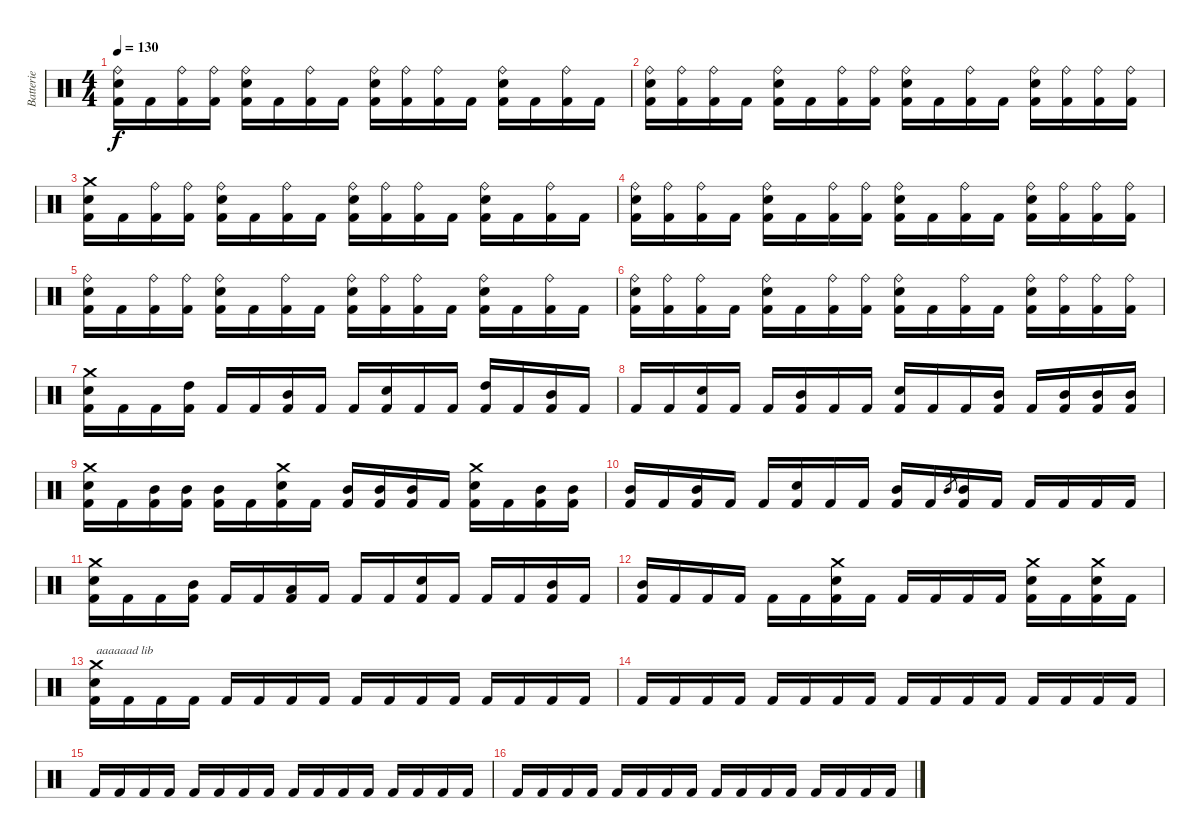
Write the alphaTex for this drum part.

\track ("Batterie" "Batterie") {instrument percussion}
\staff {score}
\articulation defaults
\ts (4 4)
\tempo 130
\clef neutral
\ks c
("Ride (bell)" "Snare (hit) 2" "Kick (hit) 2").16{dy f} "Kick (hit) 2".16 ("Ride (bell)" "Kick (hit) 2").16 ("Ride (bell)" "Kick (hit) 2").16 ("Ride (bell)" "Snare (hit) 2" "Kick (hit) 2").16 "Kick (hit) 2".16 ("Ride (bell)" "Kick (hit) 2").16 "Kick (hit) 2".16 ("Ride (bell)" "Snare (hit) 2" "Kick (hit) 2").16 ("Ride (bell)" "Kick (hit) 2").16 ("Ride (bell)" "Kick (hit) 2").16 "Kick (hit) 2".16 ("Ride (bell)" "Snare (hit) 2" "Kick (hit) 2").16 "Kick (hit) 2".16 ("Ride (bell)" "Kick (hit) 2").16 "Kick (hit) 2".16 |
("Ride (bell)" "Snare (hit) 2" "Kick (hit) 2").16 ("Ride (bell)" "Kick (hit) 2").16 ("Ride (bell)" "Kick (hit) 2").16 "Kick (hit) 2".16 ("Ride (bell)" "Snare (hit) 2" "Kick (hit) 2").16 "Kick (hit) 2".16 ("Ride (bell)" "Kick (hit) 2").16 ("Ride (bell)" "Kick (hit) 2").16 ("Ride (bell)" "Snare (hit) 2" "Kick (hit) 2").16 "Kick (hit) 2".16 ("Ride (bell)" "Kick (hit) 2").16 "Kick (hit) 2".16 ("Ride (bell)" "Snare (hit) 2" "Kick (hit) 2").16 ("Ride (bell)" "Kick (hit) 2").16 ("Ride (bell)" "Kick (hit) 2").16 ("Ride (bell)" "Kick (hit) 2").16 |
("Crash medium (hit)" "Snare (hit) 2" "Kick (hit) 2").16 "Kick (hit) 2".16 ("Ride (bell)" "Kick (hit) 2").16 ("Ride (bell)" "Kick (hit) 2").16 ("Ride (bell)" "Snare (hit) 2" "Kick (hit) 2").16 "Kick (hit) 2".16 ("Ride (bell)" "Kick (hit) 2").16 "Kick (hit) 2".16 ("Ride (bell)" "Snare (hit) 2" "Kick (hit) 2").16 ("Ride (bell)" "Kick (hit) 2").16 ("Ride (bell)" "Kick (hit) 2").16 "Kick (hit) 2".16 ("Ride (bell)" "Snare (hit) 2" "Kick (hit) 2").16 "Kick (hit) 2".16 ("Ride (bell)" "Kick (hit) 2").16 "Kick (hit) 2".16 |
("Ride (bell)" "Snare (hit) 2" "Kick (hit) 2").16 ("Ride (bell)" "Kick (hit) 2").16 ("Ride (bell)" "Kick (hit) 2").16 "Kick (hit) 2".16 ("Ride (bell)" "Snare (hit) 2" "Kick (hit) 2").16 "Kick (hit) 2".16 ("Ride (bell)" "Kick (hit) 2").16 ("Ride (bell)" "Kick (hit) 2").16 ("Ride (bell)" "Snare (hit) 2" "Kick (hit) 2").16 "Kick (hit) 2".16 ("Ride (bell)" "Kick (hit) 2").16 "Kick (hit) 2".16 ("Ride (bell)" "Snare (hit) 2" "Kick (hit) 2").16 ("Ride (bell)" "Kick (hit) 2").16 ("Ride (bell)" "Kick (hit) 2").16 ("Ride (bell)" "Kick (hit) 2").16 |
("Ride (bell)" "Snare (hit) 2" "Kick (hit) 2").16 "Kick (hit) 2".16 ("Ride (bell)" "Kick (hit) 2").16 ("Ride (bell)" "Kick (hit) 2").16 ("Ride (bell)" "Snare (hit) 2" "Kick (hit) 2").16 "Kick (hit) 2".16 ("Ride (bell)" "Kick (hit) 2").16 "Kick (hit) 2".16 ("Ride (bell)" "Snare (hit) 2" "Kick (hit) 2").16 ("Ride (bell)" "Kick (hit) 2").16 ("Ride (bell)" "Kick (hit) 2").16 "Kick (hit) 2".16 ("Ride (bell)" "Snare (hit) 2" "Kick (hit) 2").16 "Kick (hit) 2".16 ("Ride (bell)" "Kick (hit) 2").16 "Kick (hit) 2".16 |
("Ride (bell)" "Snare (hit) 2" "Kick (hit) 2").16 ("Ride (bell)" "Kick (hit) 2").16 ("Ride (bell)" "Kick (hit) 2").16 "Kick (hit) 2".16 ("Ride (bell)" "Snare (hit) 2" "Kick (hit) 2").16 "Kick (hit) 2".16 ("Ride (bell)" "Kick (hit) 2").16 ("Ride (bell)" "Kick (hit) 2").16 ("Ride (bell)" "Snare (hit) 2" "Kick (hit) 2").16 "Kick (hit) 2".16 ("Ride (bell)" "Kick (hit) 2").16 "Kick (hit) 2".16 ("Ride (bell)" "Snare (hit) 2" "Kick (hit) 2").16 ("Ride (bell)" "Kick (hit) 2").16 ("Ride (bell)" "Kick (hit) 2").16 ("Ride (bell)" "Kick (hit) 2").16 |
("Crash medium (hit)" "Snare (hit) 2" "Kick (hit) 2").16 "Kick (hit) 2".16 "Kick (hit) 2".16 ("High Tom (hit)" "Kick (hit) 2").16 "Kick (hit) 2".16 "Kick (hit) 2".16 ("Mid Tom (hit)" "Kick (hit) 2").16 "Kick (hit) 2".16 "Kick (hit) 2".16 ("Snare (hit) 2" "Kick (hit) 2").16 "Kick (hit) 2".16 "Kick (hit) 2".16 ("High Tom (hit)" "Kick (hit) 2").16 "Kick (hit) 2".16 ("Mid Tom (hit)" "Kick (hit) 2").16 "Kick (hit) 2".16 |
"Kick (hit) 2".16 "Kick (hit) 2".16 ("Snare (hit) 2" "Kick (hit) 2").16 "Kick (hit) 2".16 "Kick (hit) 2".16 ("Mid Tom (hit)" "Kick (hit) 2").16 "Kick (hit) 2".16 "Kick (hit) 2".16 ("Snare (hit) 2" "Kick (hit) 2").16 "Kick (hit) 2".16 "Kick (hit) 2".16 ("Mid Tom (hit)" "Kick (hit) 2").16 "Kick (hit) 2".16 ("Mid Tom (hit)" "Kick (hit) 2").16 ("Mid Tom (hit)" "Kick (hit) 2").16 ("Mid Tom (hit)" "Kick (hit) 2").16 |
("Crash medium (hit)" "Snare (hit) 2" "Kick (hit) 2").16 "Kick (hit) 2".16 ("Mid Tom (hit)" "Kick (hit) 2").16 ("Mid Tom (hit)" "Kick (hit) 2").16 ("Mid Tom (hit)" "Kick (hit) 2").16 "Kick (hit) 2".16 ("Crash medium (hit)" "Snare (hit) 2" "Kick (hit) 2").16 "Kick (hit) 2".16 ("Mid Tom (hit)" "Kick (hit) 2").16 ("Mid Tom (hit)" "Kick (hit) 2").16 ("Mid Tom (hit)" "Kick (hit) 2").16 "Kick (hit) 2".16 ("Crash medium (hit)" "Snare (hit) 2" "Kick (hit) 2").16 "Kick (hit) 2".16 ("Mid Tom (hit)" "Kick (hit) 2").16 ("Mid Tom (hit)" "Kick (hit) 2").16 |
("Mid Tom (hit)" "Kick (hit) 2").16 "Kick (hit) 2".16 ("Mid Tom (hit)" "Kick (hit) 2").16 "Kick (hit) 2".16 "Kick (hit) 2".16 ("Snare (hit) 2" "Kick (hit) 2").16 "Kick (hit) 2".16 "Kick (hit) 2".16 ("Mid Tom (hit)" "Kick (hit) 2").16 "Kick (hit) 2".16 "Mid Tom (hit)".8{gr} ("Mid Tom (hit)" "Kick (hit) 2").16 "Kick (hit) 2".16 "Kick (hit) 2".16 "Kick (hit) 2".16 "Kick (hit) 2".16 "Kick (hit) 2".16 |
("Crash medium (hit)" "Snare (hit) 2" "Kick (hit) 2").16 "Kick (hit) 2".16 "Kick (hit) 2".16 ("Mid Tom (hit)" "Kick (hit) 2").16 "Kick (hit) 2".16 "Kick (hit) 2".16 ("Low Tom (hit)" "Kick (hit) 2").16 "Kick (hit) 2".16 "Kick (hit) 2".16 "Kick (hit) 2".16 ("Snare (hit) 2" "Kick (hit) 2").16 "Kick (hit) 2".16 "Kick (hit) 2".16 "Kick (hit) 2".16 ("Mid Tom (hit)" "Kick (hit) 2").16 "Kick (hit) 2".16 |
("Mid Tom (hit)" "Kick (hit) 2").16 "Kick (hit) 2".16 "Kick (hit) 2".16 "Kick (hit) 2".16 "Kick (hit) 2".16 "Kick (hit) 2".16 ("Crash medium (hit)" "Snare (hit) 2" "Kick (hit) 2").16 "Kick (hit) 2".16 "Kick (hit) 2".16 "Kick (hit) 2".16 "Kick (hit) 2".16 "Kick (hit) 2".16 ("Crash medium (hit)" "Snare (hit) 2" "Kick (hit) 2").16 "Kick (hit) 2".16 ("Crash medium (hit)" "Snare (hit) 2" "Kick (hit) 2").16 "Kick (hit) 2".16 |
("Crash medium (hit)" "Snare (hit) 2" "Kick (hit) 2").16{txt "aaaaaad lib"} "Kick (hit) 2".16 "Kick (hit) 2".16 "Kick (hit) 2".16 "Kick (hit) 2".16 "Kick (hit) 2".16 "Kick (hit) 2".16 "Kick (hit) 2".16 "Kick (hit) 2".16 "Kick (hit) 2".16 "Kick (hit) 2".16 "Kick (hit) 2".16 "Kick (hit) 2".16 "Kick (hit) 2".16 "Kick (hit) 2".16 "Kick (hit) 2".16 |
"Kick (hit) 2".16 "Kick (hit) 2".16 "Kick (hit) 2".16 "Kick (hit) 2".16 "Kick (hit) 2".16 "Kick (hit) 2".16 "Kick (hit) 2".16 "Kick (hit) 2".16 "Kick (hit) 2".16 "Kick (hit) 2".16 "Kick (hit) 2".16 "Kick (hit) 2".16 "Kick (hit) 2".16 "Kick (hit) 2".16 "Kick (hit) 2".16 "Kick (hit) 2".16 |
"Kick (hit) 2".16 "Kick (hit) 2".16 "Kick (hit) 2".16 "Kick (hit) 2".16 "Kick (hit) 2".16 "Kick (hit) 2".16 "Kick (hit) 2".16 "Kick (hit) 2".16 "Kick (hit) 2".16 "Kick (hit) 2".16 "Kick (hit) 2".16 "Kick (hit) 2".16 "Kick (hit) 2".16 "Kick (hit) 2".16 "Kick (hit) 2".16 "Kick (hit) 2".16 |
"Kick (hit) 2".16 "Kick (hit) 2".16 "Kick (hit) 2".16 "Kick (hit) 2".16 "Kick (hit) 2".16 "Kick (hit) 2".16 "Kick (hit) 2".16 "Kick (hit) 2".16 "Kick (hit) 2".16 "Kick (hit) 2".16 "Kick (hit) 2".16 "Kick (hit) 2".16 "Kick (hit) 2".16 "Kick (hit) 2".16 "Kick (hit) 2".16 "Kick (hit) 2".16
